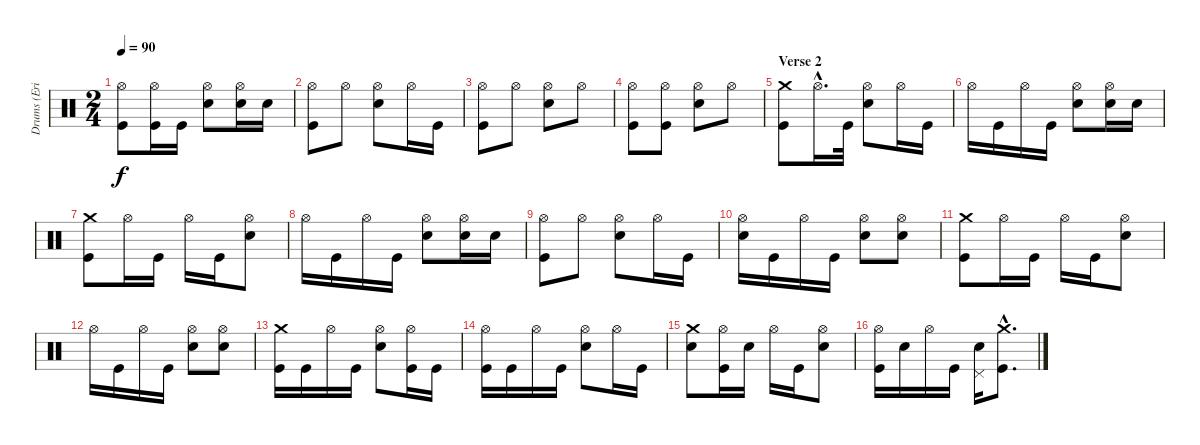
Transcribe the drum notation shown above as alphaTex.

\track ("Drums (Eric Singer)" "Drums (Eri") {instrument percussion}
\staff {score}
\articulation defaults
\ts (2 4)
\tempo 90
\clef neutral
\ks c
("Hi-Hat (open)" "Kick (hit)").8{dy f} ("Hi-Hat (open)" "Kick (hit)").16 "Kick (hit)".16 ("Hi-Hat (open)" "Electric Snare (hit)").8 ("Hi-Hat (open)" "Electric Snare (hit)").16 "Electric Snare (hit)".16 |
("Hi-Hat (open)" "Kick (hit)").8 "Hi-Hat (open)".8 ("Hi-Hat (open)" "Electric Snare (hit)").8 "Hi-Hat (open)".16 "Kick (hit)".16 |
("Hi-Hat (open)" "Kick (hit)").8 "Hi-Hat (open)".8 ("Hi-Hat (open)" "Electric Snare (hit)").8 "Hi-Hat (open)".8 |
("Hi-Hat (open)" "Kick (hit)").8 ("Hi-Hat (open)" "Kick (hit)").8 ("Hi-Hat (open)" "Electric Snare (hit)").8 "Hi-Hat (open)".8 |
\section ("" "Verse 2")
("Crash medium (hit)" "Kick (hit)").8 "Hi-Hat (open)"{hac}.16{d} "Kick (hit)".32 ("Hi-Hat (open)" "Electric Snare (hit)").8 "Hi-Hat (open)".16 "Kick (hit)".16 |
"Hi-Hat (open)".16 "Kick (hit)".16 "Hi-Hat (open)".16 "Kick (hit)".16 ("Hi-Hat (open)" "Electric Snare (hit)").8 ("Hi-Hat (open)" "Electric Snare (hit)").16 "Electric Snare (hit)".16 |
("Crash medium (hit)" "Kick (hit)").8 "Hi-Hat (open)".16 "Kick (hit)".16 "Hi-Hat (open)".16 "Kick (hit)".16 ("Hi-Hat (open)" "Electric Snare (hit)").8 |
"Hi-Hat (open)".16 "Kick (hit)".16 "Hi-Hat (open)".16 "Kick (hit)".16 ("Hi-Hat (open)" "Electric Snare (hit)").8 ("Hi-Hat (open)" "Electric Snare (hit)").16 "Electric Snare (hit)".16 |
("Hi-Hat (open)" "Kick (hit)").8 "Hi-Hat (open)".8 ("Hi-Hat (open)" "Electric Snare (hit)").8 "Hi-Hat (open)".16 "Kick (hit)".16 |
("Hi-Hat (open)" "Electric Snare (hit)").16 "Kick (hit)".16 "Hi-Hat (open)".16 "Kick (hit)".16 ("Hi-Hat (open)" "Electric Snare (hit)").8 ("Hi-Hat (open)" "Electric Snare (hit)").8 |
("Crash medium (hit)" "Kick (hit)").8 "Hi-Hat (open)".16 "Kick (hit)".16 "Hi-Hat (open)".16 "Kick (hit)".16 ("Hi-Hat (open)" "Electric Snare (hit)").8 |
"Hi-Hat (open)".16 "Kick (hit)".16 "Hi-Hat (open)".16 "Kick (hit)".16 ("Hi-Hat (open)" "Electric Snare (hit)").8 ("Hi-Hat (open)" "Electric Snare (hit)").8 |
("Crash medium (hit)" "Kick (hit)").16 "Kick (hit)".16 "Hi-Hat (open)".16 "Kick (hit)".16 ("Hi-Hat (open)" "Electric Snare (hit)").8 ("Hi-Hat (open)" "Kick (hit)").16 "Kick (hit)".16 |
("Hi-Hat (open)" "Kick (hit)").16 "Kick (hit)".16 "Hi-Hat (open)".16 "Kick (hit)".16 ("Hi-Hat (open)" "Electric Snare (hit)").8 "Hi-Hat (open)".16 "Kick (hit)".16 |
("Crash medium (hit)" "Electric Snare (hit)").8 ("Hi-Hat (open)" "Kick (hit)").16 "Electric Snare (hit)".16 "Hi-Hat (open)".16 "Kick (hit)".16 ("Hi-Hat (open)" "Electric Snare (hit)").8 |
("Hi-Hat (open)" "Kick (hit)").16 "Electric Snare (hit)".16 "Hi-Hat (open)".16 "Kick (hit)".16 ("Pedal Hi-Hat (hit)" "Electric Snare (hit)").16 ("Crash medium (hit)"{hac} "Kick (hit)"{hac}).8{d}
